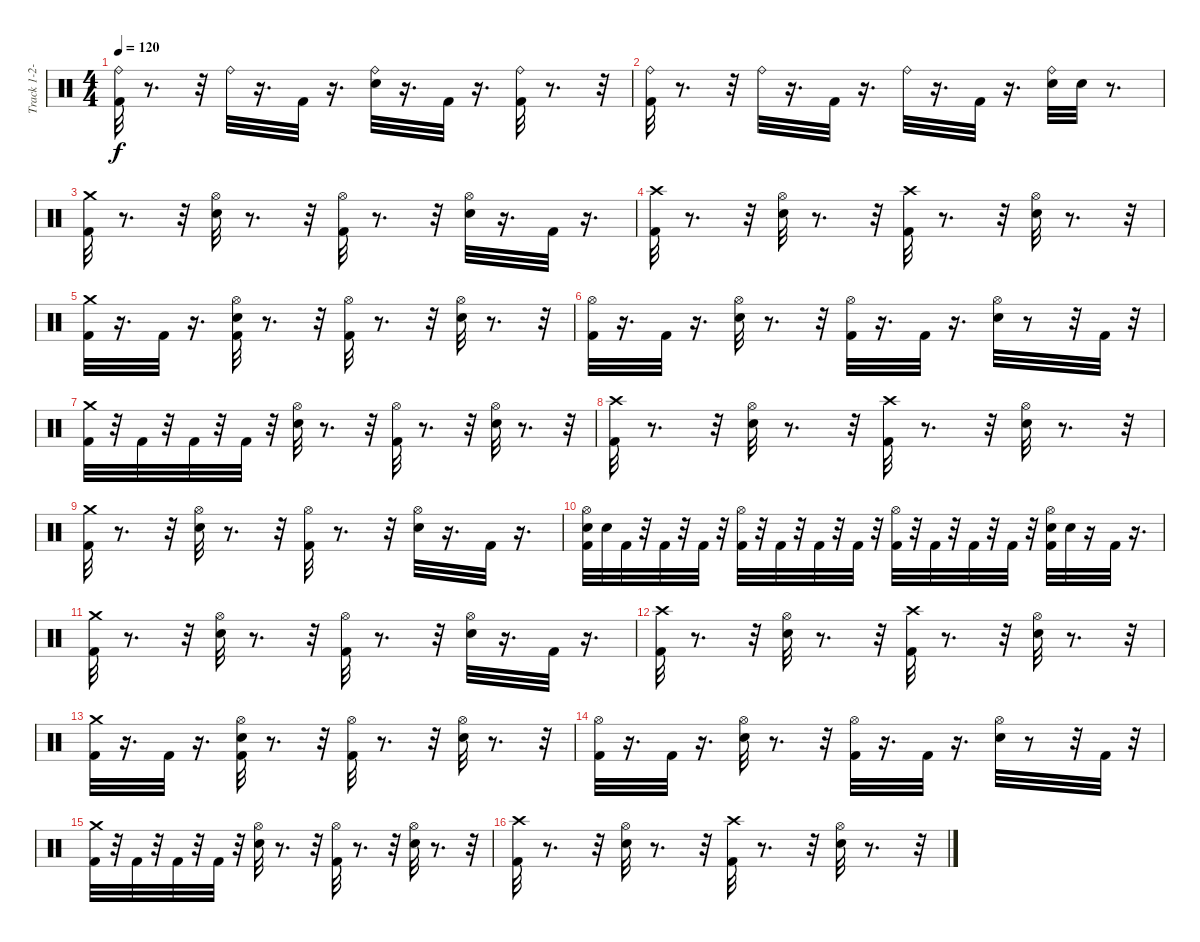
\track ("Track 1-2-3-4" "Track 1-2-") {instrument percussion}
\staff {score}
\articulation defaults
\ts (4 4)
\tempo 120
\clef neutral
\ks c
("Ride (bell)" "Kick (hit) 2").32{dy f} r.8{d} r.32 "Ride (bell)".32 r.16{d} "Kick (hit) 2".32 r.16{d} ("Ride (bell)" "Electric Snare (hit)").32 r.16{d} "Kick (hit) 2".32 r.16{d} ("Ride (bell)" "Kick (hit) 2").32 r.8{d} r.32 |
("Ride (bell)" "Kick (hit) 2").32 r.8{d} r.32 "Ride (bell)".32 r.16{d} "Kick (hit) 2".32 r.16{d} "Ride (bell)".32 r.16{d} "Kick (hit) 2".32 r.16{d} ("Ride (bell)" "Electric Snare (hit)").32 "Electric Snare (hit)".32 r.8{d} |
("Crash medium (hit)" "Kick (hit) 2").32 r.8{d} r.32 ("Hi-Hat (open)" "Electric Snare (hit)").32 r.8{d} r.32 ("Hi-Hat (open)" "Kick (hit) 2").32 r.8{d} r.32 ("Hi-Hat (open)" "Electric Snare (hit)").32 r.16{d} "Kick (hit) 2".32 r.16{d} |
("Crash high (hit)" "Kick (hit) 2").32 r.8{d} r.32 ("Hi-Hat (open)" "Electric Snare (hit)").32 r.8{d} r.32 ("Crash high (hit)" "Kick (hit) 2").32 r.8{d} r.32 ("Hi-Hat (open)" "Electric Snare (hit)").32 r.8{d} r.32 |
("Crash medium (hit)" "Kick (hit) 2").32 r.16{d} "Kick (hit) 2".32 r.16{d} ("Hi-Hat (open)" "Kick (hit) 2" "Electric Snare (hit)").32 r.8{d} r.32 ("Hi-Hat (open)" "Kick (hit) 2").32 r.8{d} r.32 ("Hi-Hat (open)" "Electric Snare (hit)").32 r.8{d} r.32 |
("Hi-Hat (open)" "Kick (hit) 2").32 r.16{d} "Kick (hit) 2".32 r.16{d} ("Hi-Hat (open)" "Electric Snare (hit)").32 r.8{d} r.32 ("Hi-Hat (open)" "Kick (hit) 2").32 r.16{d} "Kick (hit) 2".32 r.16{d} ("Hi-Hat (open)" "Electric Snare (hit)").32 r.8 r.32 "Kick (hit) 2".32 r.32 |
("Crash medium (hit)" "Kick (hit) 2").32 r.32 "Kick (hit) 2".32 r.32 "Kick (hit) 2".32 r.32 "Kick (hit) 2".32 r.32 ("Hi-Hat (open)" "Electric Snare (hit)").32 r.8{d} r.32 ("Hi-Hat (open)" "Kick (hit) 2").32 r.8{d} r.32 ("Hi-Hat (open)" "Electric Snare (hit)").32 r.8{d} r.32 |
("Crash high (hit)" "Kick (hit) 2").32 r.8{d} r.32 ("Hi-Hat (open)" "Electric Snare (hit)").32 r.8{d} r.32 ("Crash high (hit)" "Kick (hit) 2").32 r.8{d} r.32 ("Hi-Hat (open)" "Electric Snare (hit)").32 r.8{d} r.32 |
("Crash medium (hit)" "Kick (hit) 2").32 r.8{d} r.32 ("Hi-Hat (open)" "Electric Snare (hit)").32 r.8{d} r.32 ("Hi-Hat (open)" "Kick (hit) 2").32 r.8{d} r.32 ("Hi-Hat (open)" "Electric Snare (hit)").32 r.16{d} "Kick (hit) 2".32 r.16{d} |
("Hi-Hat (open)" "Kick (hit) 2" "Electric Snare (hit)").32 "Electric Snare (hit)".32 "Kick (hit) 2".32 r.32 "Kick (hit) 2".32 r.32 "Kick (hit) 2".32 r.32 ("Hi-Hat (open)" "Kick (hit) 2").32 r.32 "Kick (hit) 2".32 r.32 "Kick (hit) 2".32 r.32 "Kick (hit) 2".32 r.32 ("Hi-Hat (open)" "Kick (hit) 2").32 r.32 "Kick (hit) 2".32 r.32 "Kick (hit) 2".32 r.32 "Kick (hit) 2".32 r.32 ("Hi-Hat (open)" "Kick (hit) 2" "Electric Snare (hit)").32 "Electric Snare (hit)".32 r.16 "Kick (hit) 2".32 r.16{d} |
("Crash medium (hit)" "Kick (hit) 2").32 r.8{d} r.32 ("Hi-Hat (open)" "Electric Snare (hit)").32 r.8{d} r.32 ("Hi-Hat (open)" "Kick (hit) 2").32 r.8{d} r.32 ("Hi-Hat (open)" "Electric Snare (hit)").32 r.16{d} "Kick (hit) 2".32 r.16{d} |
("Crash high (hit)" "Kick (hit) 2").32 r.8{d} r.32 ("Hi-Hat (open)" "Electric Snare (hit)").32 r.8{d} r.32 ("Crash high (hit)" "Kick (hit) 2").32 r.8{d} r.32 ("Hi-Hat (open)" "Electric Snare (hit)").32 r.8{d} r.32 |
("Crash medium (hit)" "Kick (hit) 2").32 r.16{d} "Kick (hit) 2".32 r.16{d} ("Hi-Hat (open)" "Kick (hit) 2" "Electric Snare (hit)").32 r.8{d} r.32 ("Hi-Hat (open)" "Kick (hit) 2").32 r.8{d} r.32 ("Hi-Hat (open)" "Electric Snare (hit)").32 r.8{d} r.32 |
("Hi-Hat (open)" "Kick (hit) 2").32 r.16{d} "Kick (hit) 2".32 r.16{d} ("Hi-Hat (open)" "Electric Snare (hit)").32 r.8{d} r.32 ("Hi-Hat (open)" "Kick (hit) 2").32 r.16{d} "Kick (hit) 2".32 r.16{d} ("Hi-Hat (open)" "Electric Snare (hit)").32 r.8 r.32 "Kick (hit) 2".32 r.32 |
("Crash medium (hit)" "Kick (hit) 2").32 r.32 "Kick (hit) 2".32 r.32 "Kick (hit) 2".32 r.32 "Kick (hit) 2".32 r.32 ("Hi-Hat (open)" "Electric Snare (hit)").32 r.8{d} r.32 ("Hi-Hat (open)" "Kick (hit) 2").32 r.8{d} r.32 ("Hi-Hat (open)" "Electric Snare (hit)").32 r.8{d} r.32 |
("Crash high (hit)" "Kick (hit) 2").32 r.8{d} r.32 ("Hi-Hat (open)" "Electric Snare (hit)").32 r.8{d} r.32 ("Crash high (hit)" "Kick (hit) 2").32 r.8{d} r.32 ("Hi-Hat (open)" "Electric Snare (hit)").32 r.8{d} r.32
